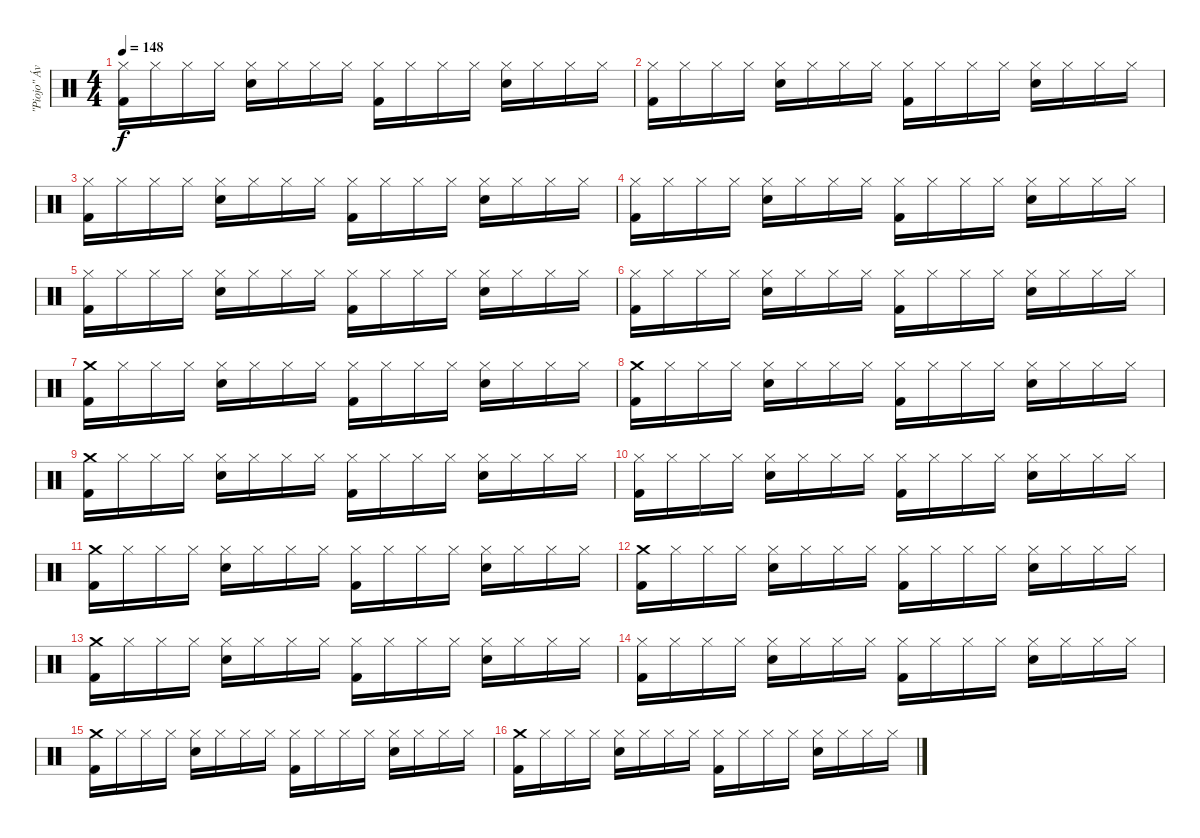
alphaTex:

\track ("\"Piojo\" Ávalos" "\"Piojo\" Áv") {instrument percussion}
\staff {score}
\articulation defaults
\ts (4 4)
\tempo 148
\clef neutral
\ks c
("Hi-Hat (closed)" "Kick (hit) 2").16{dy f} "Hi-Hat (closed)".16 "Hi-Hat (closed)".16 "Hi-Hat (closed)".16 ("Hi-Hat (closed)" "Electric Snare (hit)").16 "Hi-Hat (closed)".16 "Hi-Hat (closed)".16 "Hi-Hat (closed)".16 ("Hi-Hat (closed)" "Kick (hit) 2").16 "Hi-Hat (closed)".16 "Hi-Hat (closed)".16 "Hi-Hat (closed)".16 ("Hi-Hat (closed)" "Electric Snare (hit)").16 "Hi-Hat (closed)".16 "Hi-Hat (closed)".16 "Hi-Hat (closed)".16 |
("Hi-Hat (closed)" "Kick (hit) 2").16 "Hi-Hat (closed)".16 "Hi-Hat (closed)".16 "Hi-Hat (closed)".16 ("Hi-Hat (closed)" "Electric Snare (hit)").16 "Hi-Hat (closed)".16 "Hi-Hat (closed)".16 "Hi-Hat (closed)".16 ("Hi-Hat (closed)" "Kick (hit) 2").16 "Hi-Hat (closed)".16 "Hi-Hat (closed)".16 "Hi-Hat (closed)".16 ("Hi-Hat (closed)" "Electric Snare (hit)").16 "Hi-Hat (closed)".16 "Hi-Hat (closed)".16 "Hi-Hat (closed)".16 |
("Hi-Hat (closed)" "Kick (hit) 2").16 "Hi-Hat (closed)".16 "Hi-Hat (closed)".16 "Hi-Hat (closed)".16 ("Hi-Hat (closed)" "Electric Snare (hit)").16 "Hi-Hat (closed)".16 "Hi-Hat (closed)".16 "Hi-Hat (closed)".16 ("Hi-Hat (closed)" "Kick (hit) 2").16 "Hi-Hat (closed)".16 "Hi-Hat (closed)".16 "Hi-Hat (closed)".16 ("Hi-Hat (closed)" "Electric Snare (hit)").16 "Hi-Hat (closed)".16 "Hi-Hat (closed)".16 "Hi-Hat (closed)".16 |
("Hi-Hat (closed)" "Kick (hit) 2").16 "Hi-Hat (closed)".16 "Hi-Hat (closed)".16 "Hi-Hat (closed)".16 ("Hi-Hat (closed)" "Electric Snare (hit)").16 "Hi-Hat (closed)".16 "Hi-Hat (closed)".16 "Hi-Hat (closed)".16 ("Hi-Hat (closed)" "Kick (hit) 2").16 "Hi-Hat (closed)".16 "Hi-Hat (closed)".16 "Hi-Hat (closed)".16 ("Hi-Hat (closed)" "Electric Snare (hit)").16 "Hi-Hat (closed)".16 "Hi-Hat (closed)".16 "Hi-Hat (closed)".16 |
("Hi-Hat (closed)" "Kick (hit) 2").16 "Hi-Hat (closed)".16 "Hi-Hat (closed)".16 "Hi-Hat (closed)".16 ("Hi-Hat (closed)" "Electric Snare (hit)").16 "Hi-Hat (closed)".16 "Hi-Hat (closed)".16 "Hi-Hat (closed)".16 ("Hi-Hat (closed)" "Kick (hit) 2").16 "Hi-Hat (closed)".16 "Hi-Hat (closed)".16 "Hi-Hat (closed)".16 ("Hi-Hat (closed)" "Electric Snare (hit)").16 "Hi-Hat (closed)".16 "Hi-Hat (closed)".16 "Hi-Hat (closed)".16 |
("Hi-Hat (closed)" "Kick (hit) 2").16 "Hi-Hat (closed)".16 "Hi-Hat (closed)".16 "Hi-Hat (closed)".16 ("Hi-Hat (closed)" "Electric Snare (hit)").16 "Hi-Hat (closed)".16 "Hi-Hat (closed)".16 "Hi-Hat (closed)".16 ("Hi-Hat (closed)" "Kick (hit) 2").16 "Hi-Hat (closed)".16 "Hi-Hat (closed)".16 "Hi-Hat (closed)".16 ("Hi-Hat (closed)" "Electric Snare (hit)").16 "Hi-Hat (closed)".16 "Hi-Hat (closed)".16 "Hi-Hat (closed)".16 |
("Crash medium (hit)" "Kick (hit) 2").16 "Hi-Hat (closed)".16 "Hi-Hat (closed)".16 "Hi-Hat (closed)".16 ("Hi-Hat (closed)" "Electric Snare (hit)").16 "Hi-Hat (closed)".16 "Hi-Hat (closed)".16 "Hi-Hat (closed)".16 ("Hi-Hat (closed)" "Kick (hit) 2").16 "Hi-Hat (closed)".16 "Hi-Hat (closed)".16 "Hi-Hat (closed)".16 ("Hi-Hat (closed)" "Electric Snare (hit)").16 "Hi-Hat (closed)".16 "Hi-Hat (closed)".16 "Hi-Hat (closed)".16 |
("Crash medium (hit)" "Kick (hit) 2").16 "Hi-Hat (closed)".16 "Hi-Hat (closed)".16 "Hi-Hat (closed)".16 ("Hi-Hat (closed)" "Electric Snare (hit)").16 "Hi-Hat (closed)".16 "Hi-Hat (closed)".16 "Hi-Hat (closed)".16 ("Hi-Hat (closed)" "Kick (hit) 2").16 "Hi-Hat (closed)".16 "Hi-Hat (closed)".16 "Hi-Hat (closed)".16 ("Hi-Hat (closed)" "Electric Snare (hit)").16 "Hi-Hat (closed)".16 "Hi-Hat (closed)".16 "Hi-Hat (closed)".16 |
("Crash medium (hit)" "Kick (hit) 2").16 "Hi-Hat (closed)".16 "Hi-Hat (closed)".16 "Hi-Hat (closed)".16 ("Hi-Hat (closed)" "Electric Snare (hit)").16 "Hi-Hat (closed)".16 "Hi-Hat (closed)".16 "Hi-Hat (closed)".16 ("Hi-Hat (closed)" "Kick (hit) 2").16 "Hi-Hat (closed)".16 "Hi-Hat (closed)".16 "Hi-Hat (closed)".16 ("Hi-Hat (closed)" "Electric Snare (hit)").16 "Hi-Hat (closed)".16 "Hi-Hat (closed)".16 "Hi-Hat (closed)".16 |
("Hi-Hat (closed)" "Kick (hit) 2").16 "Hi-Hat (closed)".16 "Hi-Hat (closed)".16 "Hi-Hat (closed)".16 ("Hi-Hat (closed)" "Electric Snare (hit)").16 "Hi-Hat (closed)".16 "Hi-Hat (closed)".16 "Hi-Hat (closed)".16 ("Hi-Hat (closed)" "Kick (hit) 2").16 "Hi-Hat (closed)".16 "Hi-Hat (closed)".16 "Hi-Hat (closed)".16 ("Hi-Hat (closed)" "Electric Snare (hit)").16 "Hi-Hat (closed)".16 "Hi-Hat (closed)".16 "Hi-Hat (closed)".16 |
("Crash medium (hit)" "Kick (hit) 2").16 "Hi-Hat (closed)".16 "Hi-Hat (closed)".16 "Hi-Hat (closed)".16 ("Hi-Hat (closed)" "Electric Snare (hit)").16 "Hi-Hat (closed)".16 "Hi-Hat (closed)".16 "Hi-Hat (closed)".16 ("Hi-Hat (closed)" "Kick (hit) 2").16 "Hi-Hat (closed)".16 "Hi-Hat (closed)".16 "Hi-Hat (closed)".16 ("Hi-Hat (closed)" "Electric Snare (hit)").16 "Hi-Hat (closed)".16 "Hi-Hat (closed)".16 "Hi-Hat (closed)".16 |
("Crash medium (hit)" "Kick (hit) 2").16 "Hi-Hat (closed)".16 "Hi-Hat (closed)".16 "Hi-Hat (closed)".16 ("Hi-Hat (closed)" "Electric Snare (hit)").16 "Hi-Hat (closed)".16 "Hi-Hat (closed)".16 "Hi-Hat (closed)".16 ("Hi-Hat (closed)" "Kick (hit) 2").16 "Hi-Hat (closed)".16 "Hi-Hat (closed)".16 "Hi-Hat (closed)".16 ("Hi-Hat (closed)" "Electric Snare (hit)").16 "Hi-Hat (closed)".16 "Hi-Hat (closed)".16 "Hi-Hat (closed)".16 |
("Crash medium (hit)" "Kick (hit) 2").16 "Hi-Hat (closed)".16 "Hi-Hat (closed)".16 "Hi-Hat (closed)".16 ("Hi-Hat (closed)" "Electric Snare (hit)").16 "Hi-Hat (closed)".16 "Hi-Hat (closed)".16 "Hi-Hat (closed)".16 ("Hi-Hat (closed)" "Kick (hit) 2").16 "Hi-Hat (closed)".16 "Hi-Hat (closed)".16 "Hi-Hat (closed)".16 ("Hi-Hat (closed)" "Electric Snare (hit)").16 "Hi-Hat (closed)".16 "Hi-Hat (closed)".16 "Hi-Hat (closed)".16 |
("Hi-Hat (closed)" "Kick (hit) 2").16 "Hi-Hat (closed)".16 "Hi-Hat (closed)".16 "Hi-Hat (closed)".16 ("Hi-Hat (closed)" "Electric Snare (hit)").16 "Hi-Hat (closed)".16 "Hi-Hat (closed)".16 "Hi-Hat (closed)".16 ("Hi-Hat (closed)" "Kick (hit) 2").16 "Hi-Hat (closed)".16 "Hi-Hat (closed)".16 "Hi-Hat (closed)".16 ("Hi-Hat (closed)" "Electric Snare (hit)").16 "Hi-Hat (closed)".16 "Hi-Hat (closed)".16 "Hi-Hat (closed)".16 |
("Crash medium (hit)" "Kick (hit) 2").16 "Hi-Hat (closed)".16 "Hi-Hat (closed)".16 "Hi-Hat (closed)".16 ("Hi-Hat (closed)" "Electric Snare (hit)").16 "Hi-Hat (closed)".16 "Hi-Hat (closed)".16 "Hi-Hat (closed)".16 ("Hi-Hat (closed)" "Kick (hit) 2").16 "Hi-Hat (closed)".16 "Hi-Hat (closed)".16 "Hi-Hat (closed)".16 ("Hi-Hat (closed)" "Electric Snare (hit)").16 "Hi-Hat (closed)".16 "Hi-Hat (closed)".16 "Hi-Hat (closed)".16 |
("Crash medium (hit)" "Kick (hit) 2").16 "Hi-Hat (closed)".16 "Hi-Hat (closed)".16 "Hi-Hat (closed)".16 ("Hi-Hat (closed)" "Electric Snare (hit)").16 "Hi-Hat (closed)".16 "Hi-Hat (closed)".16 "Hi-Hat (closed)".16 ("Hi-Hat (closed)" "Kick (hit) 2").16 "Hi-Hat (closed)".16 "Hi-Hat (closed)".16 "Hi-Hat (closed)".16 ("Hi-Hat (closed)" "Electric Snare (hit)").16 "Hi-Hat (closed)".16 "Hi-Hat (closed)".16 "Hi-Hat (closed)".16
